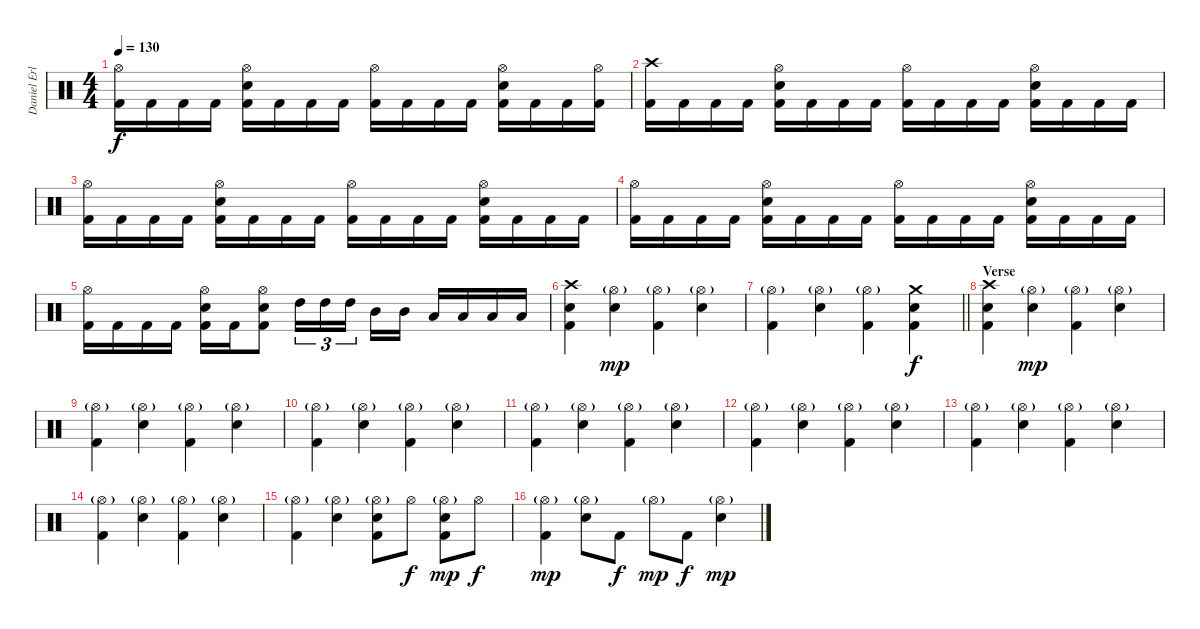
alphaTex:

\track ("Daniel Erlandsson" "Daniel Erl") {instrument percussion}
\staff {score}
\articulation defaults
\ts (4 4)
\tempo 130
\clef neutral
\ks c
("Hi-Hat (open)" "Kick (hit) 2").16{dy f} "Kick (hit) 2".16 "Kick (hit) 2".16 "Kick (hit) 2".16 ("Hi-Hat (open)" "Snare (hit) 2" "Kick (hit) 2").16 "Kick (hit) 2".16 "Kick (hit) 2".16 "Kick (hit) 2".16 ("Hi-Hat (open)" "Kick (hit) 2").16 "Kick (hit) 2".16 "Kick (hit) 2".16 "Kick (hit) 2".16 ("Hi-Hat (open)" "Snare (hit) 2" "Kick (hit) 2").16 "Kick (hit) 2".16 "Kick (hit) 2".16 ("Hi-Hat (open)" "Kick (hit) 2").16 |
("Crash high (hit)" "Kick (hit) 2").16 "Kick (hit) 2".16 "Kick (hit) 2".16 "Kick (hit) 2".16 ("Hi-Hat (open)" "Snare (hit) 2" "Kick (hit) 2").16 "Kick (hit) 2".16 "Kick (hit) 2".16 "Kick (hit) 2".16 ("Hi-Hat (open)" "Kick (hit) 2").16 "Kick (hit) 2".16 "Kick (hit) 2".16 "Kick (hit) 2".16 ("Hi-Hat (open)" "Snare (hit) 2" "Kick (hit) 2").16 "Kick (hit) 2".16 "Kick (hit) 2".16 "Kick (hit) 2".16 |
("Hi-Hat (open)" "Kick (hit) 2").16 "Kick (hit) 2".16 "Kick (hit) 2".16 "Kick (hit) 2".16 ("Hi-Hat (open)" "Snare (hit) 2" "Kick (hit) 2").16 "Kick (hit) 2".16 "Kick (hit) 2".16 "Kick (hit) 2".16 ("Hi-Hat (open)" "Kick (hit) 2").16 "Kick (hit) 2".16 "Kick (hit) 2".16 "Kick (hit) 2".16 ("Hi-Hat (open)" "Snare (hit) 2" "Kick (hit) 2").16 "Kick (hit) 2".16 "Kick (hit) 2".16 "Kick (hit) 2".16 |
("Hi-Hat (open)" "Kick (hit) 2").16 "Kick (hit) 2".16 "Kick (hit) 2".16 "Kick (hit) 2".16 ("Hi-Hat (open)" "Snare (hit) 2" "Kick (hit) 2").16 "Kick (hit) 2".16 "Kick (hit) 2".16 "Kick (hit) 2".16 ("Hi-Hat (open)" "Kick (hit) 2").16 "Kick (hit) 2".16 "Kick (hit) 2".16 "Kick (hit) 2".16 ("Hi-Hat (open)" "Snare (hit) 2" "Kick (hit) 2").16 "Kick (hit) 2".16 "Kick (hit) 2".16 "Kick (hit) 2".16 |
("Hi-Hat (open)" "Kick (hit) 2").16 "Kick (hit) 2".16 "Kick (hit) 2".16 "Kick (hit) 2".16 ("Hi-Hat (open)" "Snare (hit) 2" "Kick (hit) 2").16 "Kick (hit) 2".16 ("Hi-Hat (open)" "Snare (hit) 2" "Kick (hit) 2").8 "High Tom (hit)".16{tu (3 2)} "High Tom (hit)".16{tu (3 2)} "High Tom (hit)".16{tu (3 2) beam splitsecondary} "Mid Tom (hit)".16 "Mid Tom (hit)".16 "Low Tom (hit)".16 "Low Tom (hit)".16 "Low Floor Tom (hit)".16 "Low Floor Tom (hit)".16 |
("Crash high (hit)" "Snare (hit) 2" "Kick (hit) 2").4 ("Hi-Hat (open)"{g} "Snare (hit) 2").4{dy mp} ("Hi-Hat (open)"{g} "Kick (hit) 2").4 ("Hi-Hat (open)"{g} "Snare (hit) 2").4 |
\barLineRight lightlight
("Hi-Hat (open)"{g} "Kick (hit) 2").4 ("Hi-Hat (open)"{g} "Snare (hit) 2").4 ("Hi-Hat (open)"{g} "Kick (hit) 2").4 ("Crash medium (hit)" "Snare (hit) 2" "Kick (hit) 2").4{dy f} |
\section ("" "Verse")
("Crash high (hit)" "Snare (hit) 2" "Kick (hit) 2").4 ("Hi-Hat (open)"{g} "Snare (hit) 2").4{dy mp} ("Hi-Hat (open)"{g} "Kick (hit) 2").4 ("Hi-Hat (open)"{g} "Snare (hit) 2").4 |
("Hi-Hat (open)"{g} "Kick (hit) 2").4 ("Hi-Hat (open)"{g} "Snare (hit) 2").4 ("Hi-Hat (open)"{g} "Kick (hit) 2").4 ("Hi-Hat (open)"{g} "Snare (hit) 2").4 |
("Hi-Hat (open)"{g} "Kick (hit) 2").4 ("Hi-Hat (open)"{g} "Snare (hit) 2").4 ("Hi-Hat (open)"{g} "Kick (hit) 2").4 ("Hi-Hat (open)"{g} "Snare (hit) 2").4 |
("Hi-Hat (open)"{g} "Kick (hit) 2").4 ("Hi-Hat (open)"{g} "Snare (hit) 2").4 ("Hi-Hat (open)"{g} "Kick (hit) 2").4 ("Hi-Hat (open)"{g} "Snare (hit) 2").4 |
("Hi-Hat (open)"{g} "Kick (hit) 2").4 ("Hi-Hat (open)"{g} "Snare (hit) 2").4 ("Hi-Hat (open)"{g} "Kick (hit) 2").4 ("Hi-Hat (open)"{g} "Snare (hit) 2").4 |
("Hi-Hat (open)"{g} "Kick (hit) 2").4 ("Hi-Hat (open)"{g} "Snare (hit) 2").4 ("Hi-Hat (open)"{g} "Kick (hit) 2").4 ("Hi-Hat (open)"{g} "Snare (hit) 2").4 |
("Hi-Hat (open)"{g} "Kick (hit) 2").4 ("Hi-Hat (open)"{g} "Snare (hit) 2").4 ("Hi-Hat (open)"{g} "Kick (hit) 2").4 ("Hi-Hat (open)"{g} "Snare (hit) 2").4 |
("Hi-Hat (open)"{g} "Kick (hit) 2").4 ("Hi-Hat (open)"{g} "Snare (hit) 2").4 ("Hi-Hat (open)"{g} "Snare (hit) 2" "Kick (hit) 2").8 "Hi-Hat (open)".8{dy f} ("Hi-Hat (open)"{g} "Snare (hit) 2" "Kick (hit) 2").8{dy mp} "Hi-Hat (open)".8{dy f} |
("Hi-Hat (open)"{g} "Kick (hit) 2").4{dy mp} ("Hi-Hat (open)"{g} "Snare (hit) 2").8 "Kick (hit) 2".8{dy f} "Hi-Hat (open)"{g}.8{dy mp} "Kick (hit) 2".8{dy f} ("Hi-Hat (open)"{g} "Snare (hit) 2").4{dy mp}
